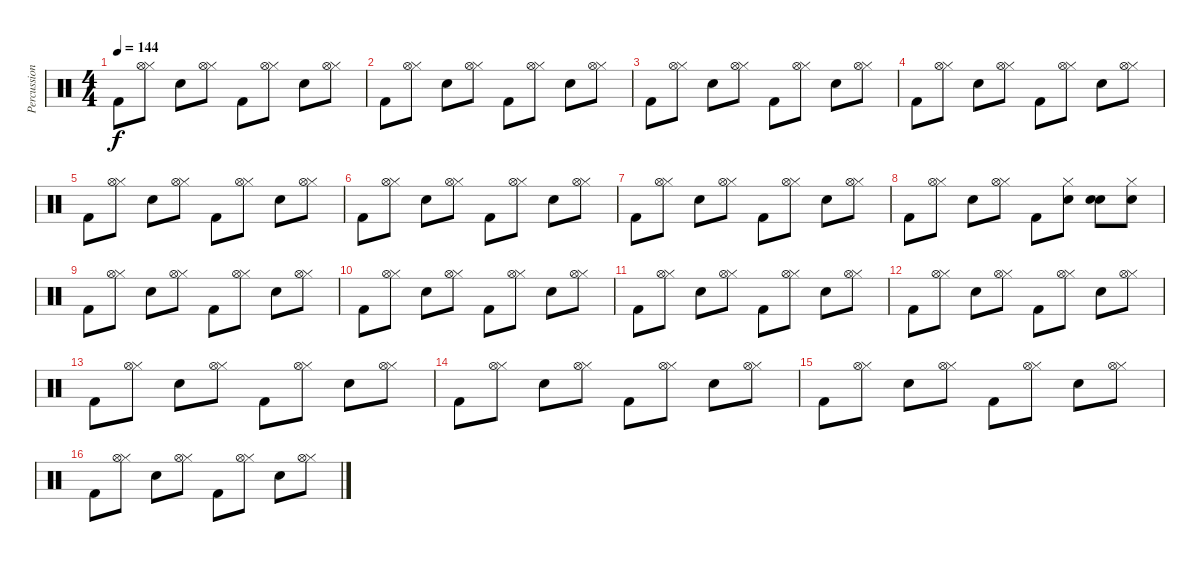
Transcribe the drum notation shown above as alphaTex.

\track ("Percussion" "Percussion") {instrument percussion}
\staff {score}
\articulation defaults
\ts (4 4)
\tempo 144
\clef neutral
\ks c "Kick (hit) 2".8{dy f}
("Hi-Hat (closed)" "Hi-Hat (open)").8 "Electric Snare (hit)".8 ("Hi-Hat (closed)" "Hi-Hat (open)").8 "Kick (hit) 2".8 ("Hi-Hat (closed)" "Hi-Hat (open)").8 "Electric Snare (hit)".8 ("Hi-Hat (closed)" "Hi-Hat (open)").8 |
"Kick (hit) 2".8 ("Hi-Hat (closed)" "Hi-Hat (open)").8 "Electric Snare (hit)".8 ("Hi-Hat (closed)" "Hi-Hat (open)").8 "Kick (hit) 2".8 ("Hi-Hat (closed)" "Hi-Hat (open)").8 "Electric Snare (hit)".8 ("Hi-Hat (closed)" "Hi-Hat (open)").8 |
"Kick (hit) 2".8 ("Hi-Hat (closed)" "Hi-Hat (open)").8 "Electric Snare (hit)".8 ("Hi-Hat (closed)" "Hi-Hat (open)").8 "Kick (hit) 2".8 ("Hi-Hat (closed)" "Hi-Hat (open)").8 "Electric Snare (hit)".8 ("Hi-Hat (closed)" "Hi-Hat (open)").8 |
"Kick (hit) 2".8 ("Hi-Hat (closed)" "Hi-Hat (open)").8 "Electric Snare (hit)".8 ("Hi-Hat (closed)" "Hi-Hat (open)").8 "Kick (hit) 2".8 ("Hi-Hat (closed)" "Hi-Hat (open)").8 "Electric Snare (hit)".8 ("Hi-Hat (closed)" "Hi-Hat (open)").8 |
"Kick (hit) 2".8 ("Hi-Hat (closed)" "Hi-Hat (open)").8 "Electric Snare (hit)".8 ("Hi-Hat (closed)" "Hi-Hat (open)").8 "Kick (hit) 2".8 ("Hi-Hat (closed)" "Hi-Hat (open)").8 "Electric Snare (hit)".8 ("Hi-Hat (closed)" "Hi-Hat (open)").8 |
"Kick (hit) 2".8 ("Hi-Hat (closed)" "Hi-Hat (open)").8 "Electric Snare (hit)".8 ("Hi-Hat (closed)" "Hi-Hat (open)").8 "Kick (hit) 2".8 ("Hi-Hat (closed)" "Hi-Hat (open)").8 "Electric Snare (hit)".8 ("Hi-Hat (closed)" "Hi-Hat (open)").8 |
"Kick (hit) 2".8 ("Hi-Hat (closed)" "Hi-Hat (open)").8 "Electric Snare (hit)".8 ("Hi-Hat (closed)" "Hi-Hat (open)").8 "Kick (hit) 2".8 ("Hi-Hat (closed)" "Hi-Hat (open)").8 "Electric Snare (hit)".8 ("Hi-Hat (closed)" "Hi-Hat (open)").8 |
"Kick (hit) 2".8 ("Hi-Hat (closed)" "Hi-Hat (open)").8 "Electric Snare (hit)".8 ("Hi-Hat (closed)" "Hi-Hat (open)").8 "Kick (hit) 2".8 ("Hi-Hat (closed)" "Electric Snare (hit)").8 ("Electric Snare (hit)" "Electric Snare (hit)").8 ("Hi-Hat (closed)" "Electric Snare (hit)").8 |
"Kick (hit) 2".8 ("Hi-Hat (closed)" "Hi-Hat (open)").8 "Electric Snare (hit)".8 ("Hi-Hat (closed)" "Hi-Hat (open)").8 "Kick (hit) 2".8 ("Hi-Hat (closed)" "Hi-Hat (open)").8 "Electric Snare (hit)".8 ("Hi-Hat (closed)" "Hi-Hat (open)").8 |
"Kick (hit) 2".8 ("Hi-Hat (closed)" "Hi-Hat (open)").8 "Electric Snare (hit)".8 ("Hi-Hat (closed)" "Hi-Hat (open)").8 "Kick (hit) 2".8 ("Hi-Hat (closed)" "Hi-Hat (open)").8 "Electric Snare (hit)".8 ("Hi-Hat (closed)" "Hi-Hat (open)").8 |
"Kick (hit) 2".8 ("Hi-Hat (closed)" "Hi-Hat (open)").8 "Electric Snare (hit)".8 ("Hi-Hat (closed)" "Hi-Hat (open)").8 "Kick (hit) 2".8 ("Hi-Hat (closed)" "Hi-Hat (open)").8 "Electric Snare (hit)".8 ("Hi-Hat (closed)" "Hi-Hat (open)").8 |
"Kick (hit) 2".8 ("Hi-Hat (closed)" "Hi-Hat (open)").8 "Electric Snare (hit)".8 ("Hi-Hat (closed)" "Hi-Hat (open)").8 "Kick (hit) 2".8 ("Hi-Hat (closed)" "Hi-Hat (open)").8 "Electric Snare (hit)".8 ("Hi-Hat (closed)" "Hi-Hat (open)").8 |
"Kick (hit) 2".8 ("Hi-Hat (closed)" "Hi-Hat (open)").8 "Electric Snare (hit)".8 ("Hi-Hat (closed)" "Hi-Hat (open)").8 "Kick (hit) 2".8 ("Hi-Hat (closed)" "Hi-Hat (open)").8 "Electric Snare (hit)".8 ("Hi-Hat (closed)" "Hi-Hat (open)").8 |
"Kick (hit) 2".8 ("Hi-Hat (closed)" "Hi-Hat (open)").8 "Electric Snare (hit)".8 ("Hi-Hat (closed)" "Hi-Hat (open)").8 "Kick (hit) 2".8 ("Hi-Hat (closed)" "Hi-Hat (open)").8 "Electric Snare (hit)".8 ("Hi-Hat (closed)" "Hi-Hat (open)").8 |
"Kick (hit) 2".8 ("Hi-Hat (closed)" "Hi-Hat (open)").8 "Electric Snare (hit)".8 ("Hi-Hat (closed)" "Hi-Hat (open)").8 "Kick (hit) 2".8 ("Hi-Hat (closed)" "Hi-Hat (open)").8 "Electric Snare (hit)".8 ("Hi-Hat (closed)" "Hi-Hat (open)").8 |
"Kick (hit) 2".8 ("Hi-Hat (closed)" "Hi-Hat (open)").8 "Electric Snare (hit)".8 ("Hi-Hat (closed)" "Hi-Hat (open)").8 "Kick (hit) 2".8 ("Hi-Hat (closed)" "Hi-Hat (open)").8 "Electric Snare (hit)".8 ("Hi-Hat (closed)" "Hi-Hat (open)").8
